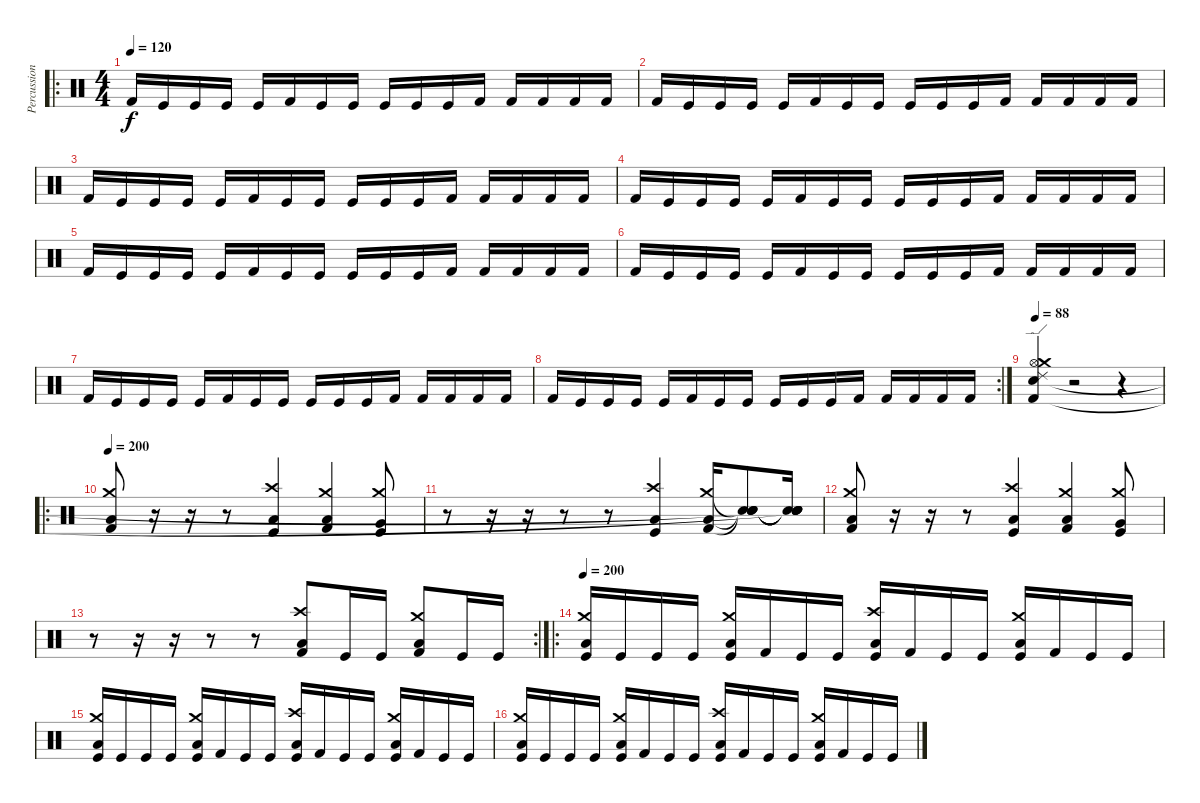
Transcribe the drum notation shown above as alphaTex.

\track ("Percussion" "Percussion") {instrument percussion}
\staff {score}
\articulation defaults
\ro
\ts (4 4)
\tempo 120
\clef neutral
\ks c "Kick (hit) 2".16{dy f} "Kick (hit)".16 "Kick (hit)".16 "Kick (hit)".16 "Kick (hit)".16 "Kick (hit) 2".16 "Kick (hit)".16 "Kick (hit)".16 "Kick (hit)".16 "Kick (hit)".16 "Kick (hit)".16 "Kick (hit) 2".16 "Kick (hit) 2".16 "Kick (hit) 2".16 "Kick (hit) 2".16 "Kick (hit) 2".16
|
"Kick (hit) 2".16 "Kick (hit)".16 "Kick (hit)".16 "Kick (hit)".16 "Kick (hit)".16 "Kick (hit) 2".16 "Kick (hit)".16 "Kick (hit)".16 "Kick (hit)".16 "Kick (hit)".16 "Kick (hit)".16 "Kick (hit) 2".16 "Kick (hit) 2".16 "Kick (hit) 2".16 "Kick (hit) 2".16 "Kick (hit) 2".16 |
"Kick (hit) 2".16 "Kick (hit)".16 "Kick (hit)".16 "Kick (hit)".16 "Kick (hit)".16 "Kick (hit) 2".16 "Kick (hit)".16 "Kick (hit)".16 "Kick (hit)".16 "Kick (hit)".16 "Kick (hit)".16 "Kick (hit) 2".16 "Kick (hit) 2".16 "Kick (hit) 2".16 "Kick (hit) 2".16 "Kick (hit) 2".16 |
"Kick (hit) 2".16 "Kick (hit)".16 "Kick (hit)".16 "Kick (hit)".16 "Kick (hit)".16 "Kick (hit) 2".16 "Kick (hit)".16 "Kick (hit)".16 "Kick (hit)".16 "Kick (hit)".16 "Kick (hit)".16 "Kick (hit) 2".16 "Kick (hit) 2".16 "Kick (hit) 2".16 "Kick (hit) 2".16 "Kick (hit) 2".16 |
"Kick (hit) 2".16 "Kick (hit)".16 "Kick (hit)".16 "Kick (hit)".16 "Kick (hit)".16 "Kick (hit) 2".16 "Kick (hit)".16 "Kick (hit)".16 "Kick (hit)".16 "Kick (hit)".16 "Kick (hit)".16 "Kick (hit) 2".16 "Kick (hit) 2".16 "Kick (hit) 2".16 "Kick (hit) 2".16 "Kick (hit) 2".16 |
"Kick (hit) 2".16 "Kick (hit)".16 "Kick (hit)".16 "Kick (hit)".16 "Kick (hit)".16 "Kick (hit) 2".16 "Kick (hit)".16 "Kick (hit)".16 "Kick (hit)".16 "Kick (hit)".16 "Kick (hit)".16 "Kick (hit) 2".16 "Kick (hit) 2".16 "Kick (hit) 2".16 "Kick (hit) 2".16 "Kick (hit) 2".16 |
"Kick (hit) 2".16 "Kick (hit)".16 "Kick (hit)".16 "Kick (hit)".16 "Kick (hit)".16 "Kick (hit) 2".16 "Kick (hit)".16 "Kick (hit)".16 "Kick (hit)".16 "Kick (hit)".16 "Kick (hit)".16 "Kick (hit) 2".16 "Kick (hit) 2".16 "Kick (hit) 2".16 "Kick (hit) 2".16 "Kick (hit) 2".16 |
\rc 2 "Kick (hit) 2".16 "Kick (hit)".16 "Kick (hit)".16 "Kick (hit)".16 "Kick (hit)".16 "Kick (hit) 2".16 "Kick (hit)".16 "Kick (hit)".16 "Kick (hit)".16 "Kick (hit)".16 "Kick (hit)".16 "Kick (hit) 2".16 "Kick (hit) 2".16 "Kick (hit) 2".16 "Kick (hit) 2".16 "Kick (hit) 2".16
|
\tempo 88
("Hi-Hat (open)" "Crash medium (hit)" "Ride (edge) 2" "Snare (hit) 2" "Kick (hit) 2").4 r.2 r.4 |
\ro
\tempo 200
("Crash medium (hit)" "Low Tom (hit)" "Kick (hit) 2").8 r.16 r.16 r.8 ("Crash high (hit)" "Low Floor Tom (hit)" "Kick (hit)").4 ("Crash medium (hit)" "Low Tom (hit)" "Kick (hit) 2").4 ("Crash medium (hit)" "Very Low Tom (hit)" "Kick (hit)").8 |
r.8 r.16 r.16 r.8 r.8 ("Crash high (hit)" "Low Floor Tom (hit)" "Kick (hit)").4 ("Crash medium (hit)" "Low Tom (hit)" "Kick (hit) 2").16 ("Snare (hit)"{t} "Snare (hit)"{t} "Snare (hit)"{t} "Snare (hit)"{t}).8 ("Snare (hit)"{t} "Snare (hit)"{t} "Snare (hit)"{t} "Snare (hit)"{t} "Snare (hit)"{t}).16 |
("Crash medium (hit)" "Low Tom (hit)" "Kick (hit) 2").8 r.16 r.16 r.8 ("Crash high (hit)" "Low Floor Tom (hit)" "Kick (hit)").4 ("Crash medium (hit)" "Low Tom (hit)" "Kick (hit) 2").4 ("Crash medium (hit)" "Very Low Tom (hit)" "Kick (hit)").8 |
\rc 2
r.8 r.16 r.16 r.8 r.8 ("Crash high (hit)" "Low Floor Tom (hit)" "Kick (hit) 2").8 "Kick (hit)".16 "Kick (hit)".16 ("Crash medium (hit)" "Low Tom (hit)" "Kick (hit) 2").8 "Kick (hit)".16 "Kick (hit)".16 |
\ro
\tempo 200
("Crash medium (hit)" "Low Tom (hit)" "Kick (hit)").16 "Kick (hit)".16 "Kick (hit)".16 "Kick (hit)".16 ("Crash medium (hit)" "Low Floor Tom (hit)" "Kick (hit)").16 "Kick (hit) 2".16 "Kick (hit)".16 "Kick (hit)".16 ("Crash high (hit)" "Low Floor Tom (hit)" "Kick (hit)").16 "Kick (hit) 2".16 "Kick (hit)".16 "Kick (hit)".16 ("Crash medium (hit)" "Low Tom (hit)" "Kick (hit)").16 "Kick (hit) 2".16 "Kick (hit)".16 "Kick (hit)".16 |
("Crash medium (hit)" "Low Tom (hit)" "Kick (hit)").16 "Kick (hit)".16 "Kick (hit)".16 "Kick (hit)".16 ("Crash medium (hit)" "Low Floor Tom (hit)" "Kick (hit)").16 "Kick (hit) 2".16 "Kick (hit)".16 "Kick (hit)".16 ("Crash high (hit)" "Low Floor Tom (hit)" "Kick (hit)").16 "Kick (hit) 2".16 "Kick (hit)".16 "Kick (hit)".16 ("Crash medium (hit)" "Low Tom (hit)" "Kick (hit)").16 "Kick (hit) 2".16 "Kick (hit)".16 "Kick (hit)".16 |
("Crash medium (hit)" "Low Tom (hit)" "Kick (hit)").16 "Kick (hit)".16 "Kick (hit)".16 "Kick (hit)".16 ("Crash medium (hit)" "Low Floor Tom (hit)" "Kick (hit)").16 "Kick (hit) 2".16 "Kick (hit)".16 "Kick (hit)".16 ("Crash high (hit)" "Low Floor Tom (hit)" "Kick (hit)").16 "Kick (hit) 2".16 "Kick (hit)".16 "Kick (hit)".16 ("Crash medium (hit)" "Low Tom (hit)" "Kick (hit)").16 "Kick (hit) 2".16 "Kick (hit)".16 "Kick (hit)".16
